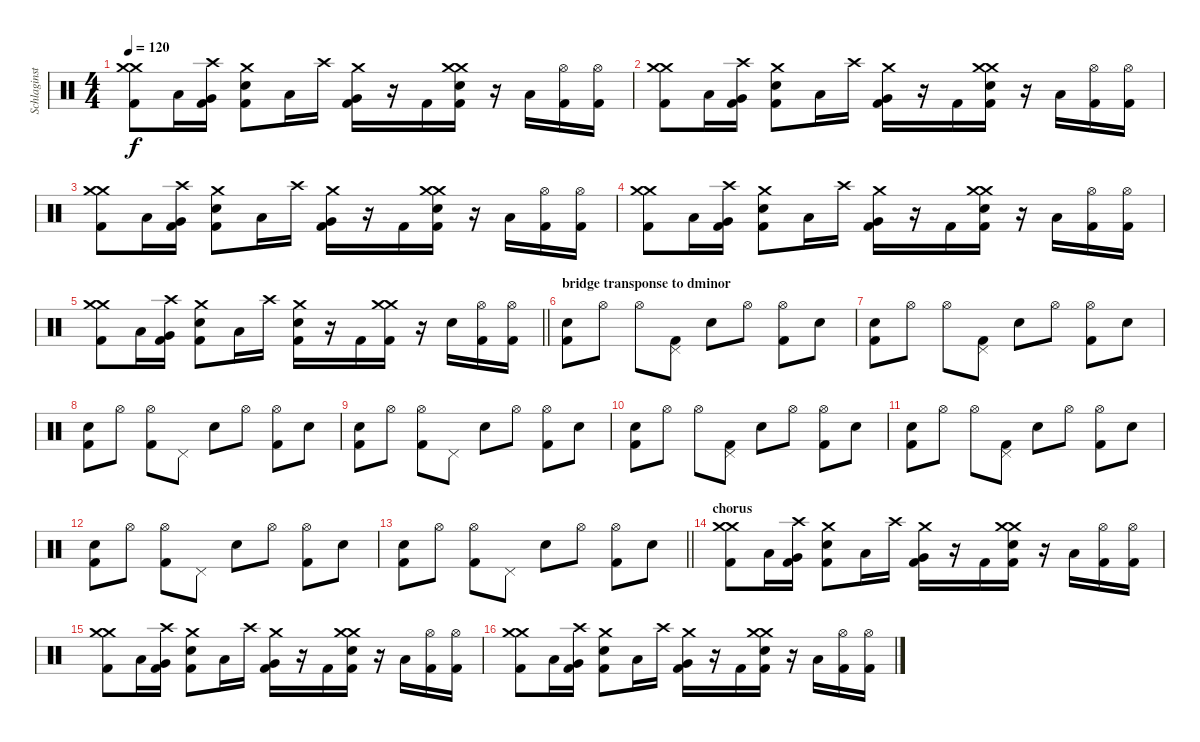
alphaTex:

\track ("Schlaginstrumente - Auswahl" "Schlaginst") {instrument percussion}
\staff {score}
\articulation defaults
\ts (4 4)
\tempo 120
\clef neutral
\ks c
("Crash medium (hit)" "Kick (hit) 2" "Crash medium (hit)").8{dy f} "Low Tom (hit)".16 ("Very Low Tom (hit)" "Kick (hit) 2" "Crash high (hit)").16 ("Electric Snare (hit)" "Kick (hit) 2" "Crash medium (hit)").8 "Low Tom (hit)".16 "Crash high (hit)".16 ("Very Low Tom (hit)" "Kick (hit) 2" "Crash medium (hit)").16 r.16 "Kick (hit) 2".16 ("Crash medium (hit)" "Electric Snare (hit)" "Kick (hit) 2" "Crash medium (hit)").16 r.16 "Low Tom (hit)".16 ("Kick (hit) 2" "Hi-Hat (open)").16 ("Kick (hit) 2" "Hi-Hat (open)").16 |
("Crash medium (hit)" "Kick (hit) 2" "Crash medium (hit)").8 "Low Tom (hit)".16 ("Very Low Tom (hit)" "Kick (hit) 2" "Crash high (hit)").16 ("Electric Snare (hit)" "Kick (hit) 2" "Crash medium (hit)").8 "Low Tom (hit)".16 "Crash high (hit)".16 ("Very Low Tom (hit)" "Kick (hit) 2" "Crash medium (hit)").16 r.16 "Kick (hit) 2".16 ("Crash medium (hit)" "Electric Snare (hit)" "Kick (hit) 2" "Crash medium (hit)").16 r.16 "Low Tom (hit)".16 ("Kick (hit) 2" "Hi-Hat (open)").16 ("Kick (hit) 2" "Hi-Hat (open)").16 |
("Crash medium (hit)" "Kick (hit) 2" "Crash medium (hit)").8 "Low Tom (hit)".16 ("Very Low Tom (hit)" "Kick (hit) 2" "Crash high (hit)").16 ("Electric Snare (hit)" "Kick (hit) 2" "Crash medium (hit)").8 "Low Tom (hit)".16 "Crash high (hit)".16 ("Very Low Tom (hit)" "Kick (hit) 2" "Crash medium (hit)").16 r.16 "Kick (hit) 2".16 ("Crash medium (hit)" "Electric Snare (hit)" "Kick (hit) 2" "Crash medium (hit)").16 r.16 "Low Tom (hit)".16 ("Kick (hit) 2" "Hi-Hat (open)").16 ("Kick (hit) 2" "Hi-Hat (open)").16 |
("Crash medium (hit)" "Kick (hit) 2" "Crash medium (hit)").8 "Low Tom (hit)".16 ("Very Low Tom (hit)" "Kick (hit) 2" "Crash high (hit)").16 ("Electric Snare (hit)" "Kick (hit) 2" "Crash medium (hit)").8 "Low Tom (hit)".16 "Crash high (hit)".16 ("Very Low Tom (hit)" "Kick (hit) 2" "Crash medium (hit)").16 r.16 "Kick (hit) 2".16 ("Crash medium (hit)" "Electric Snare (hit)" "Kick (hit) 2" "Crash medium (hit)").16 r.16 "Low Tom (hit)".16 ("Kick (hit) 2" "Hi-Hat (open)").16 ("Kick (hit) 2" "Hi-Hat (open)").16 |
\barLineRight lightlight
("Crash medium (hit)" "Kick (hit) 2" "Crash medium (hit)").8 "Low Tom (hit)".16 ("Very Low Tom (hit)" "Kick (hit) 2" "Crash high (hit)").16 ("Electric Snare (hit)" "Kick (hit) 2" "Crash medium (hit)").8 "Low Tom (hit)".16 "Crash high (hit)".16 ("Electric Snare (hit)" "Kick (hit) 2" "Crash medium (hit)").16 r.16 "Kick (hit) 2".16 ("Crash medium (hit)" "Kick (hit) 2" "Crash medium (hit)").16 r.16 "Electric Snare (hit)".16 ("Kick (hit) 2" "Hi-Hat (open)").16 ("Kick (hit) 2" "Hi-Hat (open)").16 |
\section ("" "bridge transponse to dminor")
("Electric Snare (hit)" "Kick (hit) 2").8 "Hi-Hat (open)".8 "Hi-Hat (open)".8 ("Pedal Hi-Hat (hit)" "Kick (hit) 2").8 "Electric Snare (hit)".8 "Hi-Hat (open)".8 ("Hi-Hat (open)" "Kick (hit) 2").8 "Electric Snare (hit)".8 |
("Electric Snare (hit)" "Kick (hit) 2").8 "Hi-Hat (open)".8 "Hi-Hat (open)".8 ("Pedal Hi-Hat (hit)" "Kick (hit) 2").8 "Electric Snare (hit)".8 "Hi-Hat (open)".8 ("Hi-Hat (open)" "Kick (hit) 2").8 "Electric Snare (hit)".8 |
("Electric Snare (hit)" "Kick (hit) 2").8 "Hi-Hat (open)".8 ("Hi-Hat (open)" "Kick (hit) 2").8 "Pedal Hi-Hat (hit)".8 "Electric Snare (hit)".8 "Hi-Hat (open)".8 ("Hi-Hat (open)" "Kick (hit) 2").8 "Electric Snare (hit)".8 |
("Electric Snare (hit)" "Kick (hit) 2").8 "Hi-Hat (open)".8 ("Hi-Hat (open)" "Kick (hit) 2").8 "Pedal Hi-Hat (hit)".8 "Electric Snare (hit)".8 "Hi-Hat (open)".8 ("Hi-Hat (open)" "Kick (hit) 2").8 "Electric Snare (hit)".8 |
("Electric Snare (hit)" "Kick (hit) 2").8 "Hi-Hat (open)".8 "Hi-Hat (open)".8 ("Pedal Hi-Hat (hit)" "Kick (hit) 2").8 "Electric Snare (hit)".8 "Hi-Hat (open)".8 ("Hi-Hat (open)" "Kick (hit) 2").8 "Electric Snare (hit)".8 |
("Electric Snare (hit)" "Kick (hit) 2").8 "Hi-Hat (open)".8 "Hi-Hat (open)".8 ("Pedal Hi-Hat (hit)" "Kick (hit) 2").8 "Electric Snare (hit)".8 "Hi-Hat (open)".8 ("Hi-Hat (open)" "Kick (hit) 2").8 "Electric Snare (hit)".8 |
("Electric Snare (hit)" "Kick (hit) 2").8 "Hi-Hat (open)".8 ("Hi-Hat (open)" "Kick (hit) 2").8 "Pedal Hi-Hat (hit)".8 "Electric Snare (hit)".8 "Hi-Hat (open)".8 ("Hi-Hat (open)" "Kick (hit) 2").8 "Electric Snare (hit)".8 |
\barLineRight lightlight
("Electric Snare (hit)" "Kick (hit) 2").8 "Hi-Hat (open)".8 ("Hi-Hat (open)" "Kick (hit) 2").8 "Pedal Hi-Hat (hit)".8 "Electric Snare (hit)".8 "Hi-Hat (open)".8 ("Hi-Hat (open)" "Kick (hit) 2").8 "Electric Snare (hit)".8 |
\section ("" "chorus")
("Crash medium (hit)" "Kick (hit) 2" "Crash medium (hit)").8 "Low Tom (hit)".16 ("Very Low Tom (hit)" "Kick (hit) 2" "Crash high (hit)").16 ("Electric Snare (hit)" "Kick (hit) 2" "Crash medium (hit)").8 "Low Tom (hit)".16 "Crash high (hit)".16 ("Very Low Tom (hit)" "Kick (hit) 2" "Crash medium (hit)").16 r.16 "Kick (hit) 2".16 ("Crash medium (hit)" "Electric Snare (hit)" "Kick (hit) 2" "Crash medium (hit)").16 r.16 "Low Tom (hit)".16 ("Kick (hit) 2" "Hi-Hat (open)").16 ("Kick (hit) 2" "Hi-Hat (open)").16 |
("Crash medium (hit)" "Kick (hit) 2" "Crash medium (hit)").8 "Low Tom (hit)".16 ("Very Low Tom (hit)" "Kick (hit) 2" "Crash high (hit)").16 ("Electric Snare (hit)" "Kick (hit) 2" "Crash medium (hit)").8 "Low Tom (hit)".16 "Crash high (hit)".16 ("Very Low Tom (hit)" "Kick (hit) 2" "Crash medium (hit)").16 r.16 "Kick (hit) 2".16 ("Crash medium (hit)" "Electric Snare (hit)" "Kick (hit) 2" "Crash medium (hit)").16 r.16 "Low Tom (hit)".16 ("Kick (hit) 2" "Hi-Hat (open)").16 ("Kick (hit) 2" "Hi-Hat (open)").16 |
("Crash medium (hit)" "Kick (hit) 2" "Crash medium (hit)").8 "Low Tom (hit)".16 ("Very Low Tom (hit)" "Kick (hit) 2" "Crash high (hit)").16 ("Electric Snare (hit)" "Kick (hit) 2" "Crash medium (hit)").8 "Low Tom (hit)".16 "Crash high (hit)".16 ("Very Low Tom (hit)" "Kick (hit) 2" "Crash medium (hit)").16 r.16 "Kick (hit) 2".16 ("Crash medium (hit)" "Electric Snare (hit)" "Kick (hit) 2" "Crash medium (hit)").16 r.16 "Low Tom (hit)".16 ("Kick (hit) 2" "Hi-Hat (open)").16 ("Kick (hit) 2" "Hi-Hat (open)").16
